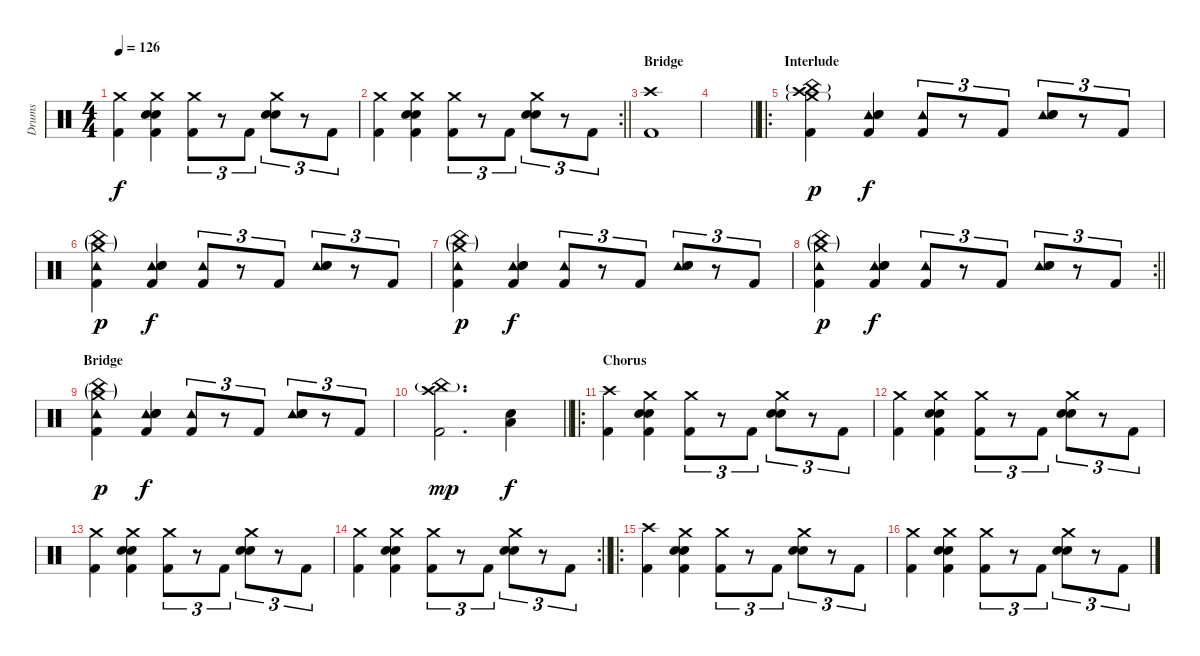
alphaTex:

\track ("Drums" "Drums") {instrument percussion}
\staff {score}
\articulation defaults
\ts (4 4)
\tempo 126
\clef neutral
\ks c
("Crash medium (hit)" "Kick (hit) 2").4{dy f} ("Crash medium (hit)" "Electric Snare (hit)" "Hand Clap (hit)" "Kick (hit) 2").4 ("Crash medium (hit)" "Kick (hit) 2").8{tu (3 2)} r.8{tu (3 2)} "Kick (hit) 2".8{tu (3 2)} ("Crash medium (hit)" "Electric Snare (hit)" "Hand Clap (hit)").8{tu (3 2)} r.8{tu (3 2)} "Kick (hit) 2".8{tu (3 2)} |
\rc 2
\barLineRight lightlight
("Crash medium (hit)" "Kick (hit) 2").4 ("Crash medium (hit)" "Electric Snare (hit)" "Hand Clap (hit)" "Kick (hit) 2").4 ("Crash medium (hit)" "Kick (hit) 2").8{tu (3 2)} r.8{tu (3 2)} "Kick (hit) 2".8{tu (3 2)} ("Crash medium (hit)" "Electric Snare (hit)" "Hand Clap (hit)").8{tu (3 2)} r.8{tu (3 2)} "Kick (hit) 2".8{tu (3 2)} |
\section ("" "Bridge")
("Crash high (hit)" "Kick (hit) 2").1 |
\barLineRight lightlight
|
\ro
\section ("" "Interlude")
("Crash high (hit)" "China (hit)"{g} "Crash medium (hit)"{g} "Kick (hit) 2").4{dy p} ("Tambourine (hit)" "Electric Snare (hit)" "Hand Clap (hit)" "Kick (hit) 2").4{dy f} ("Tambourine (hit)" "Kick (hit) 2").8{tu (3 2)} r.8{tu (3 2)} "Kick (hit) 2".8{tu (3 2)} ("Tambourine (hit)" "Electric Snare (hit)" "Hand Clap (hit)").8{tu (3 2)} r.8{tu (3 2)} "Kick (hit) 2".8{tu (3 2)} |
("Tambourine (hit)" "China (hit)"{g} "Crash medium (hit)"{g} "Kick (hit) 2").4{dy p} ("Tambourine (hit)" "Electric Snare (hit)" "Hand Clap (hit)" "Kick (hit) 2").4{dy f} ("Tambourine (hit)" "Kick (hit) 2").8{tu (3 2)} r.8{tu (3 2)} "Kick (hit) 2".8{tu (3 2)} ("Tambourine (hit)" "Electric Snare (hit)" "Hand Clap (hit)").8{tu (3 2)} r.8{tu (3 2)} "Kick (hit) 2".8{tu (3 2)} |
("Tambourine (hit)" "China (hit)"{g} "Crash medium (hit)"{g} "Kick (hit) 2").4{dy p} ("Tambourine (hit)" "Electric Snare (hit)" "Hand Clap (hit)" "Kick (hit) 2").4{dy f} ("Tambourine (hit)" "Kick (hit) 2").8{tu (3 2)} r.8{tu (3 2)} "Kick (hit) 2".8{tu (3 2)} ("Tambourine (hit)" "Electric Snare (hit)" "Hand Clap (hit)").8{tu (3 2)} r.8{tu (3 2)} "Kick (hit) 2".8{tu (3 2)} |
\rc 2
\barLineRight lightlight
("Tambourine (hit)" "China (hit)"{g} "Crash medium (hit)"{g} "Kick (hit) 2").4{dy p} ("Tambourine (hit)" "Electric Snare (hit)" "Hand Clap (hit)" "Kick (hit) 2").4{dy f} ("Tambourine (hit)" "Kick (hit) 2").8{tu (3 2)} r.8{tu (3 2)} "Kick (hit) 2".8{tu (3 2)} ("Tambourine (hit)" "Electric Snare (hit)" "Hand Clap (hit)").8{tu (3 2)} r.8{tu (3 2)} "Kick (hit) 2".8{tu (3 2)} |
\section ("" "Bridge")
("Tambourine (hit)" "China (hit)"{g} "Crash medium (hit)"{g} "Kick (hit) 2").4{dy p} ("Tambourine (hit)" "Electric Snare (hit)" "Hand Clap (hit)" "Kick (hit) 2").4{dy f} ("Tambourine (hit)" "Kick (hit) 2").8{tu (3 2)} r.8{tu (3 2)} "Kick (hit) 2".8{tu (3 2)} ("Tambourine (hit)" "Electric Snare (hit)" "Hand Clap (hit)").8{tu (3 2)} r.8{tu (3 2)} "Kick (hit) 2".8{tu (3 2)} |
\barLineRight lightlight
("Crash high (hit)" "China (hit)"{g} "Kick (hit) 2").2{d dy mp} ("Electric Snare (hit)" "Low Floor Tom (hit)").4{dy f} |
\ro
\section ("" "Chorus")
("Crash high (hit)" "Kick (hit) 2").4 ("Crash medium (hit)" "Electric Snare (hit)" "Hand Clap (hit)" "Kick (hit) 2").4 ("Crash medium (hit)" "Kick (hit) 2").8{tu (3 2)} r.8{tu (3 2)} "Kick (hit) 2".8{tu (3 2)} ("Crash medium (hit)" "Electric Snare (hit)" "Hand Clap (hit)").8{tu (3 2)} r.8{tu (3 2)} "Kick (hit) 2".8{tu (3 2)} |
("Crash medium (hit)" "Kick (hit) 2").4 ("Crash medium (hit)" "Electric Snare (hit)" "Hand Clap (hit)" "Kick (hit) 2").4 ("Crash medium (hit)" "Kick (hit) 2").8{tu (3 2)} r.8{tu (3 2)} "Kick (hit) 2".8{tu (3 2)} ("Crash medium (hit)" "Electric Snare (hit)" "Hand Clap (hit)").8{tu (3 2)} r.8{tu (3 2)} "Kick (hit) 2".8{tu (3 2)} |
("Crash medium (hit)" "Kick (hit) 2").4 ("Crash medium (hit)" "Electric Snare (hit)" "Hand Clap (hit)" "Kick (hit) 2").4 ("Crash medium (hit)" "Kick (hit) 2").8{tu (3 2)} r.8{tu (3 2)} "Kick (hit) 2".8{tu (3 2)} ("Crash medium (hit)" "Electric Snare (hit)" "Hand Clap (hit)").8{tu (3 2)} r.8{tu (3 2)} "Kick (hit) 2".8{tu (3 2)} |
\rc 2
\barLineRight lightlight
("Crash medium (hit)" "Kick (hit) 2").4 ("Crash medium (hit)" "Electric Snare (hit)" "Hand Clap (hit)" "Kick (hit) 2").4 ("Crash medium (hit)" "Kick (hit) 2").8{tu (3 2)} r.8{tu (3 2)} "Kick (hit) 2".8{tu (3 2)} ("Crash medium (hit)" "Electric Snare (hit)" "Hand Clap (hit)").8{tu (3 2)} r.8{tu (3 2)} "Kick (hit) 2".8{tu (3 2)} |
\ro
("Crash high (hit)" "Kick (hit) 2").4 ("Crash medium (hit)" "Electric Snare (hit)" "Hand Clap (hit)" "Kick (hit) 2").4 ("Crash medium (hit)" "Kick (hit) 2").8{tu (3 2)} r.8{tu (3 2)} "Kick (hit) 2".8{tu (3 2)} ("Crash medium (hit)" "Electric Snare (hit)" "Hand Clap (hit)").8{tu (3 2)} r.8{tu (3 2)} "Kick (hit) 2".8{tu (3 2)} |
("Crash medium (hit)" "Kick (hit) 2").4 ("Crash medium (hit)" "Electric Snare (hit)" "Hand Clap (hit)" "Kick (hit) 2").4 ("Crash medium (hit)" "Kick (hit) 2").8{tu (3 2)} r.8{tu (3 2)} "Kick (hit) 2".8{tu (3 2)} ("Crash medium (hit)" "Electric Snare (hit)" "Hand Clap (hit)").8{tu (3 2)} r.8{tu (3 2)} "Kick (hit) 2".8{tu (3 2)}
